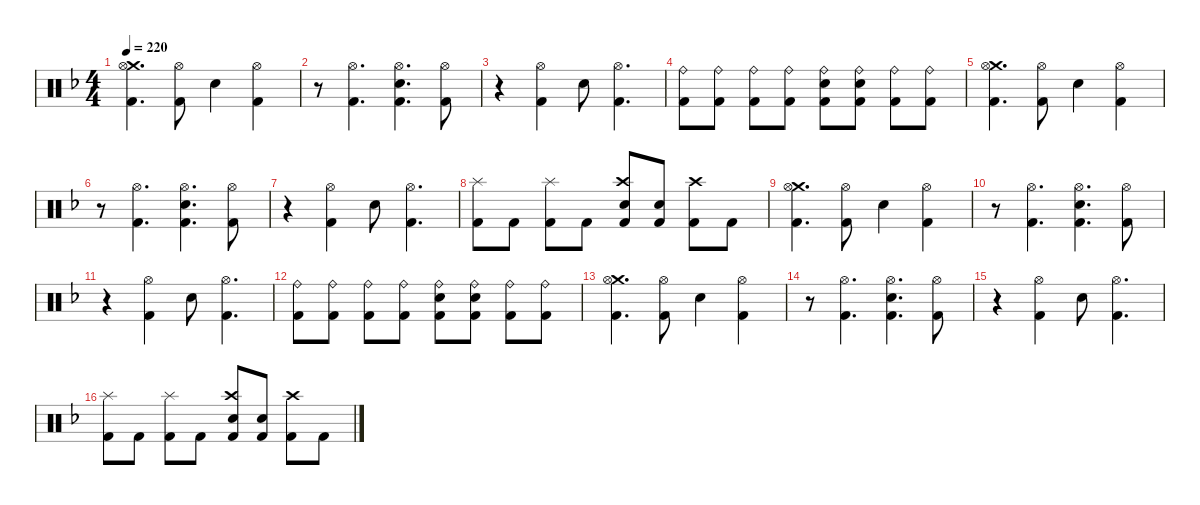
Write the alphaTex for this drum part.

\hideDynamics
\bracketExtendMode nobrackets
\singleTrackTrackNamePolicy hidden
\multiTrackTrackNamePolicy hidden
\firstSystemTrackNameMode fullname
\firstSystemTrackNameOrientation horizontal
\otherSystemsTrackNameOrientation horizontal
\track ("Drumkit" "Drums") {instrument percussion}
\staff {score}
\articulation defaults
\ts (4 4)
\tempo 220
\clef neutral
\ks dminor
("Crash medium (hit)"{acc forcenatural} "Hi-Hat (open)"{acc forcenatural} "Kick (hit) 2"{acc forcenatural}).4{d dy f beam Down} ("Hi-Hat (open)"{acc forcenatural} "Kick (hit) 2"{acc forcenatural}).8{beam Down} "Snare (hit) 2"{acc forcenatural}.4{beam Down} ("Hi-Hat (open)"{acc forcenatural} "Kick (hit) 2"{acc forcenatural}).4{beam Down} |
r.8{beam Down} ("Hi-Hat (open)"{acc forcenatural} "Kick (hit) 2"{acc forcenatural}).4{d beam Down} ("Hi-Hat (open)"{acc forcenatural} "Snare (hit) 2"{acc forcenatural} "Kick (hit) 2"{acc forcenatural}).4{d beam Down} ("Hi-Hat (open)"{acc forcenatural} "Kick (hit) 2"{acc forcenatural}).8{beam Down} |
r.4{beam Down} ("Hi-Hat (open)"{acc forcenatural} "Kick (hit) 2"{acc forcenatural}).4{beam Down} "Snare (hit) 2"{acc forcenatural}.8{beam Down} ("Hi-Hat (open)"{acc forcenatural} "Kick (hit) 2"{acc forcenatural}).4{d beam Down} |
("Ride (bell)"{acc forcenatural} "Kick (hit) 2"{acc forcenatural}).8{beam Down} ("Ride (bell)"{acc forcenatural} "Kick (hit) 2"{acc forcenatural}).8{beam Down} ("Ride (bell)"{acc forcenatural} "Kick (hit) 2"{acc forcenatural}).8{dy mp beam Down} ("Ride (bell)"{acc forcenatural} "Kick (hit) 2"{acc forcenatural}).8{beam Down} ("Ride (bell)"{acc forcenatural} "Snare (hit) 2"{acc forcenatural} "Kick (hit) 2"{acc forcenatural}).8{dy f beam Down} ("Ride (bell)"{acc forcenatural} "Snare (hit) 2"{acc forcenatural} "Kick (hit) 2"{acc forcenatural}).8{beam Down} ("Ride (bell)"{acc forcenatural} "Kick (hit) 2"{acc forcenatural}).8{dy mp beam Down} ("Ride (bell)"{acc forcenatural} "Kick (hit) 2"{acc forcenatural}).8{beam Down} |
("Crash medium (hit)"{acc forcenatural} "Hi-Hat (open)"{acc forcenatural} "Kick (hit) 2"{acc forcenatural}).4{d dy f beam Down} ("Hi-Hat (open)"{acc forcenatural} "Kick (hit) 2"{acc forcenatural}).8{beam Down} "Snare (hit) 2"{acc forcenatural}.4{beam Down} ("Hi-Hat (open)"{acc forcenatural} "Kick (hit) 2"{acc forcenatural}).4{beam Down} |
r.8{beam Down} ("Hi-Hat (open)"{acc forcenatural} "Kick (hit) 2"{acc forcenatural}).4{d beam Down} ("Hi-Hat (open)"{acc forcenatural} "Snare (hit) 2"{acc forcenatural} "Kick (hit) 2"{acc forcenatural}).4{d beam Down} ("Hi-Hat (open)"{acc forcenatural} "Kick (hit) 2"{acc forcenatural}).8{beam Down} |
r.4{beam Down} ("Hi-Hat (open)"{acc forcenatural} "Kick (hit) 2"{acc forcenatural}).4{beam Down} "Snare (hit) 2"{acc forcenatural}.8{beam Down} ("Hi-Hat (open)"{acc forcenatural} "Kick (hit) 2"{acc forcenatural}).4{d beam Down} |
("Splash (hit)"{acc forcenatural} "Kick (hit) 2"{acc forcenatural}).8{beam Down} "Kick (hit) 2"{acc forcenatural}.8{beam Down} ("Splash (hit)"{acc forcenatural} "Kick (hit) 2"{acc forcenatural}).8{beam Down} "Kick (hit) 2"{acc forcenatural}.8{beam Down} ("Crash high (hit)"{acc forcenatural} "Snare (hit) 2"{acc forcenatural} "Kick (hit) 2"{acc forcenatural}).8{beam Up} ("Snare (hit) 2"{acc forcenatural} "Kick (hit) 2"{acc forcenatural}).8{beam Up} ("Crash high (hit)"{acc forcenatural} "Kick (hit) 2"{acc forcenatural}).8{beam Down} "Kick (hit) 2"{acc forcenatural}.8{beam Down} |
("Crash medium (hit)"{acc forcenatural} "Hi-Hat (open)"{acc forcenatural} "Kick (hit) 2"{acc forcenatural}).4{d beam Down} ("Hi-Hat (open)"{acc forcenatural} "Kick (hit) 2"{acc forcenatural}).8{beam Down} "Snare (hit) 2"{acc forcenatural}.4{beam Down} ("Hi-Hat (open)"{acc forcenatural} "Kick (hit) 2"{acc forcenatural}).4{beam Down} |
r.8{beam Down} ("Hi-Hat (open)"{acc forcenatural} "Kick (hit) 2"{acc forcenatural}).4{d beam Down} ("Hi-Hat (open)"{acc forcenatural} "Snare (hit) 2"{acc forcenatural} "Kick (hit) 2"{acc forcenatural}).4{d beam Down} ("Hi-Hat (open)"{acc forcenatural} "Kick (hit) 2"{acc forcenatural}).8{beam Down} |
r.4{beam Down} ("Hi-Hat (open)"{acc forcenatural} "Kick (hit) 2"{acc forcenatural}).4{beam Down} "Snare (hit) 2"{acc forcenatural}.8{beam Down} ("Hi-Hat (open)"{acc forcenatural} "Kick (hit) 2"{acc forcenatural}).4{d beam Down} |
("Ride (bell)"{acc forcenatural} "Kick (hit) 2"{acc forcenatural}).8{beam Down} ("Ride (bell)"{acc forcenatural} "Kick (hit) 2"{acc forcenatural}).8{beam Down} ("Ride (bell)"{acc forcenatural} "Kick (hit) 2"{acc forcenatural}).8{dy mp beam Down} ("Ride (bell)"{acc forcenatural} "Kick (hit) 2"{acc forcenatural}).8{beam Down} ("Ride (bell)"{acc forcenatural} "Snare (hit) 2"{acc forcenatural} "Kick (hit) 2"{acc forcenatural}).8{dy f beam Down} ("Ride (bell)"{acc forcenatural} "Snare (hit) 2"{acc forcenatural} "Kick (hit) 2"{acc forcenatural}).8{beam Down} ("Ride (bell)"{acc forcenatural} "Kick (hit) 2"{acc forcenatural}).8{dy mp beam Down} ("Ride (bell)"{acc forcenatural} "Kick (hit) 2"{acc forcenatural}).8{beam Down} |
("Crash medium (hit)"{acc forcenatural} "Hi-Hat (open)"{acc forcenatural} "Kick (hit) 2"{acc forcenatural}).4{d dy f beam Down} ("Hi-Hat (open)"{acc forcenatural} "Kick (hit) 2"{acc forcenatural}).8{beam Down} "Snare (hit) 2"{acc forcenatural}.4{beam Down} ("Hi-Hat (open)"{acc forcenatural} "Kick (hit) 2"{acc forcenatural}).4{beam Down} |
r.8{beam Down} ("Hi-Hat (open)"{acc forcenatural} "Kick (hit) 2"{acc forcenatural}).4{d beam Down} ("Hi-Hat (open)"{acc forcenatural} "Snare (hit) 2"{acc forcenatural} "Kick (hit) 2"{acc forcenatural}).4{d beam Down} ("Hi-Hat (open)"{acc forcenatural} "Kick (hit) 2"{acc forcenatural}).8{beam Down} |
r.4{beam Down} ("Hi-Hat (open)"{acc forcenatural} "Kick (hit) 2"{acc forcenatural}).4{beam Down} "Snare (hit) 2"{acc forcenatural}.8{beam Down} ("Hi-Hat (open)"{acc forcenatural} "Kick (hit) 2"{acc forcenatural}).4{d beam Down} |
("Splash (hit)"{acc forcenatural} "Kick (hit) 2"{acc forcenatural}).8{beam Down} "Kick (hit) 2"{acc forcenatural}.8{beam Down} ("Splash (hit)"{acc forcenatural} "Kick (hit) 2"{acc forcenatural}).8{beam Down} "Kick (hit) 2"{acc forcenatural}.8{beam Down} ("Crash high (hit)"{acc forcenatural} "Snare (hit) 2"{acc forcenatural} "Kick (hit) 2"{acc forcenatural}).8{beam Up} ("Snare (hit) 2"{acc forcenatural} "Kick (hit) 2"{acc forcenatural}).8{beam Up} ("Crash high (hit)"{acc forcenatural} "Kick (hit) 2"{acc forcenatural}).8{beam Down} "Kick (hit) 2"{acc forcenatural}.8{beam Down}
